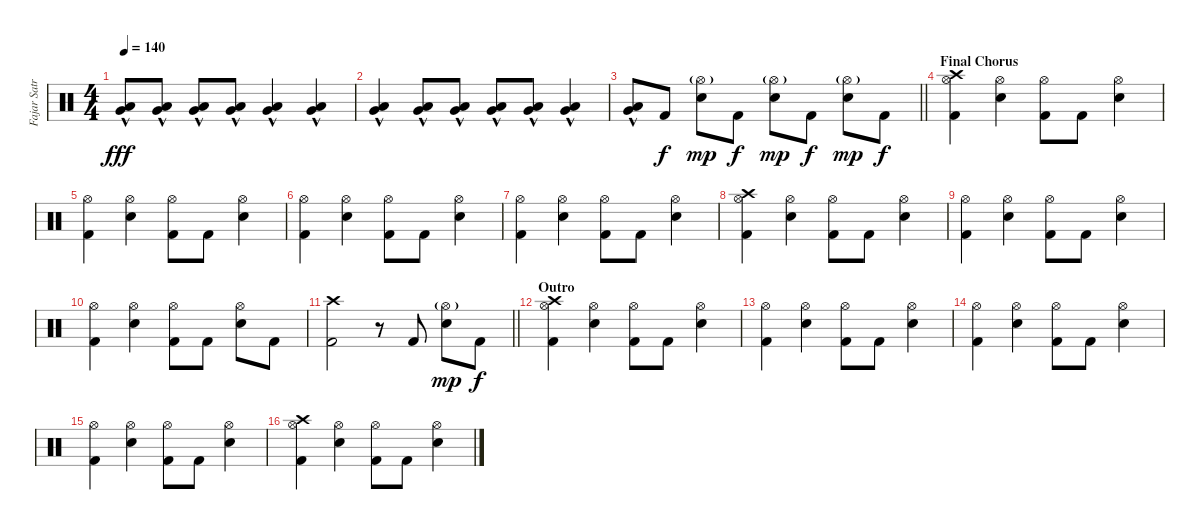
\track ("Fajar Satriana" "Fajar Satr") {instrument percussion}
\staff {score}
\articulation defaults
\ts (4 4)
\tempo 140
\clef neutral
\ks c
("Very Low Tom (hit)"{hac} "Low Floor Tom (hit)"{hac}).8{dy fff} ("Low Tom (hit)"{hac} "Very Low Tom (hit)"{hac}).8 ("Very Low Tom (hit)"{hac} "Low Floor Tom (hit)"{hac}).8 ("Very Low Tom (hit)"{hac} "Low Floor Tom (hit)"{hac}).8 ("Very Low Tom (hit)"{hac} "Low Floor Tom (hit)"{hac}).4 ("Very Low Tom (hit)"{hac} "Low Floor Tom (hit)"{hac}).4 |
("Very Low Tom (hit)"{hac} "Low Floor Tom (hit)"{hac}).4 ("Very Low Tom (hit)"{hac} "Low Floor Tom (hit)"{hac}).8 ("Low Tom (hit)"{hac} "Very Low Tom (hit)"{hac}).8 ("Very Low Tom (hit)"{hac} "Low Floor Tom (hit)"{hac}).8 ("Very Low Tom (hit)"{hac} "Low Floor Tom (hit)"{hac}).8 ("Very Low Tom (hit)"{hac} "Low Floor Tom (hit)"{hac}).4 |
\barLineRight lightlight
("Very Low Tom (hit)"{hac} "Low Floor Tom (hit)"{hac}).8 "Kick (hit) 2".8{dy f} ("Hi-Hat (open)"{g} "Electric Snare (hit)").8{dy mp} "Kick (hit) 2".8{dy f} ("Hi-Hat (open)"{g} "Electric Snare (hit)").8{dy mp} "Kick (hit) 2".8{dy f} ("Hi-Hat (open)"{g} "Electric Snare (hit)").8{dy mp} "Kick (hit) 2".8{dy f} |
\section ("" "Final Chorus")
("Crash high (hit)" "Hi-Hat (open)" "Kick (hit) 2").4 ("Hi-Hat (open)" "Electric Snare (hit)").4 ("Hi-Hat (open)" "Kick (hit) 2").8 "Kick (hit) 2".8 ("Hi-Hat (open)" "Electric Snare (hit)").4 |
("Hi-Hat (open)" "Kick (hit) 2").4 ("Hi-Hat (open)" "Electric Snare (hit)").4 ("Hi-Hat (open)" "Kick (hit) 2").8 "Kick (hit) 2".8 ("Hi-Hat (open)" "Electric Snare (hit)").4 |
("Hi-Hat (open)" "Kick (hit) 2").4 ("Hi-Hat (open)" "Electric Snare (hit)").4 ("Hi-Hat (open)" "Kick (hit) 2").8 "Kick (hit) 2".8 ("Hi-Hat (open)" "Electric Snare (hit)").4 |
("Hi-Hat (open)" "Kick (hit) 2").4 ("Hi-Hat (open)" "Electric Snare (hit)").4 ("Hi-Hat (open)" "Kick (hit) 2").8 "Kick (hit) 2".8 ("Hi-Hat (open)" "Electric Snare (hit)").4 |
("Crash high (hit)" "Hi-Hat (open)" "Kick (hit) 2").4 ("Hi-Hat (open)" "Electric Snare (hit)").4 ("Hi-Hat (open)" "Kick (hit) 2").8 "Kick (hit) 2".8 ("Hi-Hat (open)" "Electric Snare (hit)").4 |
("Hi-Hat (open)" "Kick (hit) 2").4 ("Hi-Hat (open)" "Electric Snare (hit)").4 ("Hi-Hat (open)" "Kick (hit) 2").8 "Kick (hit) 2".8 ("Hi-Hat (open)" "Electric Snare (hit)").4 |
("Hi-Hat (open)" "Kick (hit) 2").4 ("Hi-Hat (open)" "Electric Snare (hit)").4 ("Hi-Hat (open)" "Kick (hit) 2").8 "Kick (hit) 2".8 ("Hi-Hat (open)" "Electric Snare (hit)").8 "Kick (hit) 2".8 |
\barLineRight lightlight
("Crash high (hit)" "Kick (hit) 2").2 r.8 "Kick (hit) 2".8 ("Hi-Hat (open)"{g} "Electric Snare (hit)").8{dy mp} "Kick (hit) 2".8{dy f} |
\section ("" "Outro")
("Crash high (hit)" "Hi-Hat (open)" "Kick (hit) 2").4 ("Hi-Hat (open)" "Electric Snare (hit)").4 ("Hi-Hat (open)" "Kick (hit) 2").8 "Kick (hit) 2".8 ("Hi-Hat (open)" "Electric Snare (hit)").4 |
("Hi-Hat (open)" "Kick (hit) 2").4 ("Hi-Hat (open)" "Electric Snare (hit)").4 ("Hi-Hat (open)" "Kick (hit) 2").8 "Kick (hit) 2".8 ("Hi-Hat (open)" "Electric Snare (hit)").4 |
("Hi-Hat (open)" "Kick (hit) 2").4 ("Hi-Hat (open)" "Electric Snare (hit)").4 ("Hi-Hat (open)" "Kick (hit) 2").8 "Kick (hit) 2".8 ("Hi-Hat (open)" "Electric Snare (hit)").4 |
("Hi-Hat (open)" "Kick (hit) 2").4 ("Hi-Hat (open)" "Electric Snare (hit)").4 ("Hi-Hat (open)" "Kick (hit) 2").8 "Kick (hit) 2".8 ("Hi-Hat (open)" "Electric Snare (hit)").4 |
("Crash high (hit)" "Hi-Hat (open)" "Kick (hit) 2").4 ("Hi-Hat (open)" "Electric Snare (hit)").4 ("Hi-Hat (open)" "Kick (hit) 2").8 "Kick (hit) 2".8 ("Hi-Hat (open)" "Electric Snare (hit)").4
